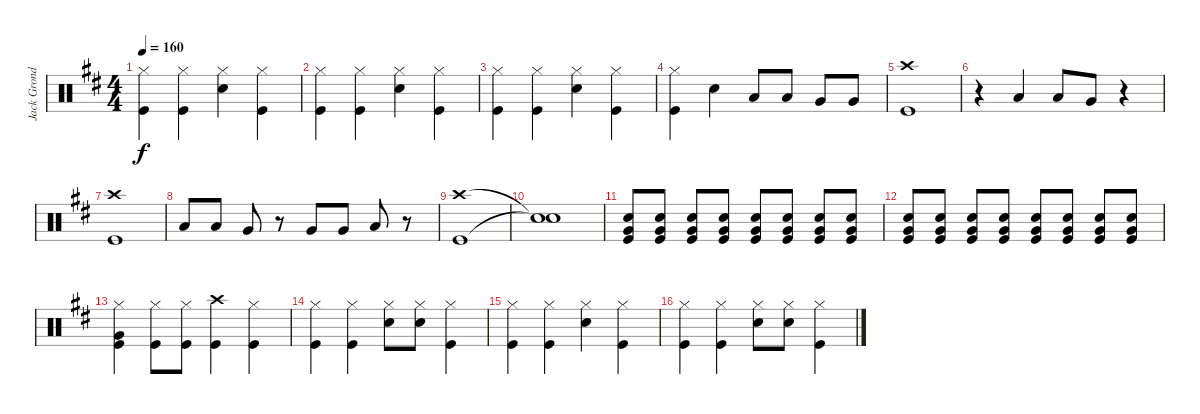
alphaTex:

\track ("Jack Grondin Drums" "Jack Grond") {instrument percussion}
\staff {score}
\articulation defaults
\ts (4 4)
\tempo 160
\clef neutral
\ks d
("Hi-Hat (closed)" "Kick (hit)").4{dy f} ("Hi-Hat (closed)" "Kick (hit)").4 ("Hi-Hat (closed)" "Snare (hit) 2").4 ("Hi-Hat (closed)" "Kick (hit)").4 |
("Hi-Hat (closed)" "Kick (hit)").4 ("Hi-Hat (closed)" "Kick (hit)").4 ("Hi-Hat (closed)" "Snare (hit) 2").4 ("Hi-Hat (closed)" "Kick (hit)").4 |
("Hi-Hat (closed)" "Kick (hit)").4 ("Hi-Hat (closed)" "Kick (hit)").4 ("Hi-Hat (closed)" "Snare (hit) 2").4 ("Hi-Hat (closed)" "Kick (hit)").4 |
("Hi-Hat (closed)" "Kick (hit)").4 "Snare (hit) 2".4 "Low Tom (hit)".8 "Low Tom (hit)".8 "Very Low Tom (hit)".8 "Very Low Tom (hit)".8 |
("Crash high (hit)" "Kick (hit)").1 |
r.4 "Low Tom (hit)".4 "Low Tom (hit)".8 "Very Low Tom (hit)".8 r.4 |
("Crash high (hit)" "Kick (hit)").1 |
"Low Tom (hit)".8 "Low Tom (hit)".8 "Very Low Tom (hit)".8 r.8 "Very Low Tom (hit)".8 "Very Low Tom (hit)".8 "Low Floor Tom (hit)".8 r.8 |
("Crash high (hit)" "Kick (hit)").1 |
("Snare (hit)"{t} "Snare (hit)"{t}).1 |
("Snare (hit) 2" "Very Low Tom (hit)" "Kick (hit)").8 ("Snare (hit) 2" "Very Low Tom (hit)" "Kick (hit)").8 ("Snare (hit) 2" "Very Low Tom (hit)" "Kick (hit)").8 ("Snare (hit) 2" "Very Low Tom (hit)" "Kick (hit)").8 ("Snare (hit) 2" "Very Low Tom (hit)" "Kick (hit)").8 ("Snare (hit) 2" "Very Low Tom (hit)" "Kick (hit)").8 ("Snare (hit) 2" "Very Low Tom (hit)" "Kick (hit)").8 ("Snare (hit) 2" "Very Low Tom (hit)" "Kick (hit)").8 |
("Snare (hit) 2" "Very Low Tom (hit)" "Kick (hit)").8 ("Snare (hit) 2" "Very Low Tom (hit)" "Kick (hit)").8 ("Snare (hit) 2" "Very Low Tom (hit)" "Kick (hit)").8 ("Snare (hit) 2" "Very Low Tom (hit)" "Kick (hit)").8 ("Snare (hit) 2" "Very Low Tom (hit)" "Kick (hit)").8 ("Snare (hit) 2" "Very Low Tom (hit)" "Kick (hit)").8 ("Snare (hit) 2" "Very Low Tom (hit)" "Kick (hit)").8 ("Snare (hit) 2" "Very Low Tom (hit)" "Kick (hit)").8 |
("Hi-Hat (closed)" "Very Low Tom (hit)" "Kick (hit)").4{volume 13} ("Hi-Hat (closed)" "Kick (hit)").8 ("Hi-Hat (closed)" "Kick (hit)").8 ("Crash high (hit)" "Kick (hit)").4 ("Hi-Hat (closed)" "Kick (hit)").4 |
("Hi-Hat (closed)" "Kick (hit)").4 ("Hi-Hat (closed)" "Kick (hit)").4 ("Hi-Hat (closed)" "Snare (hit) 2").8 ("Hi-Hat (closed)" "Snare (hit) 2").8 ("Hi-Hat (closed)" "Kick (hit)").4 |
("Hi-Hat (closed)" "Kick (hit)").4 ("Hi-Hat (closed)" "Kick (hit)").4 ("Hi-Hat (closed)" "Snare (hit) 2").4 ("Hi-Hat (closed)" "Kick (hit)").4 |
("Hi-Hat (closed)" "Kick (hit)").4 ("Hi-Hat (closed)" "Kick (hit)").4 ("Hi-Hat (closed)" "Snare (hit) 2").8 ("Hi-Hat (closed)" "Snare (hit) 2").8 ("Hi-Hat (closed)" "Kick (hit)").4
